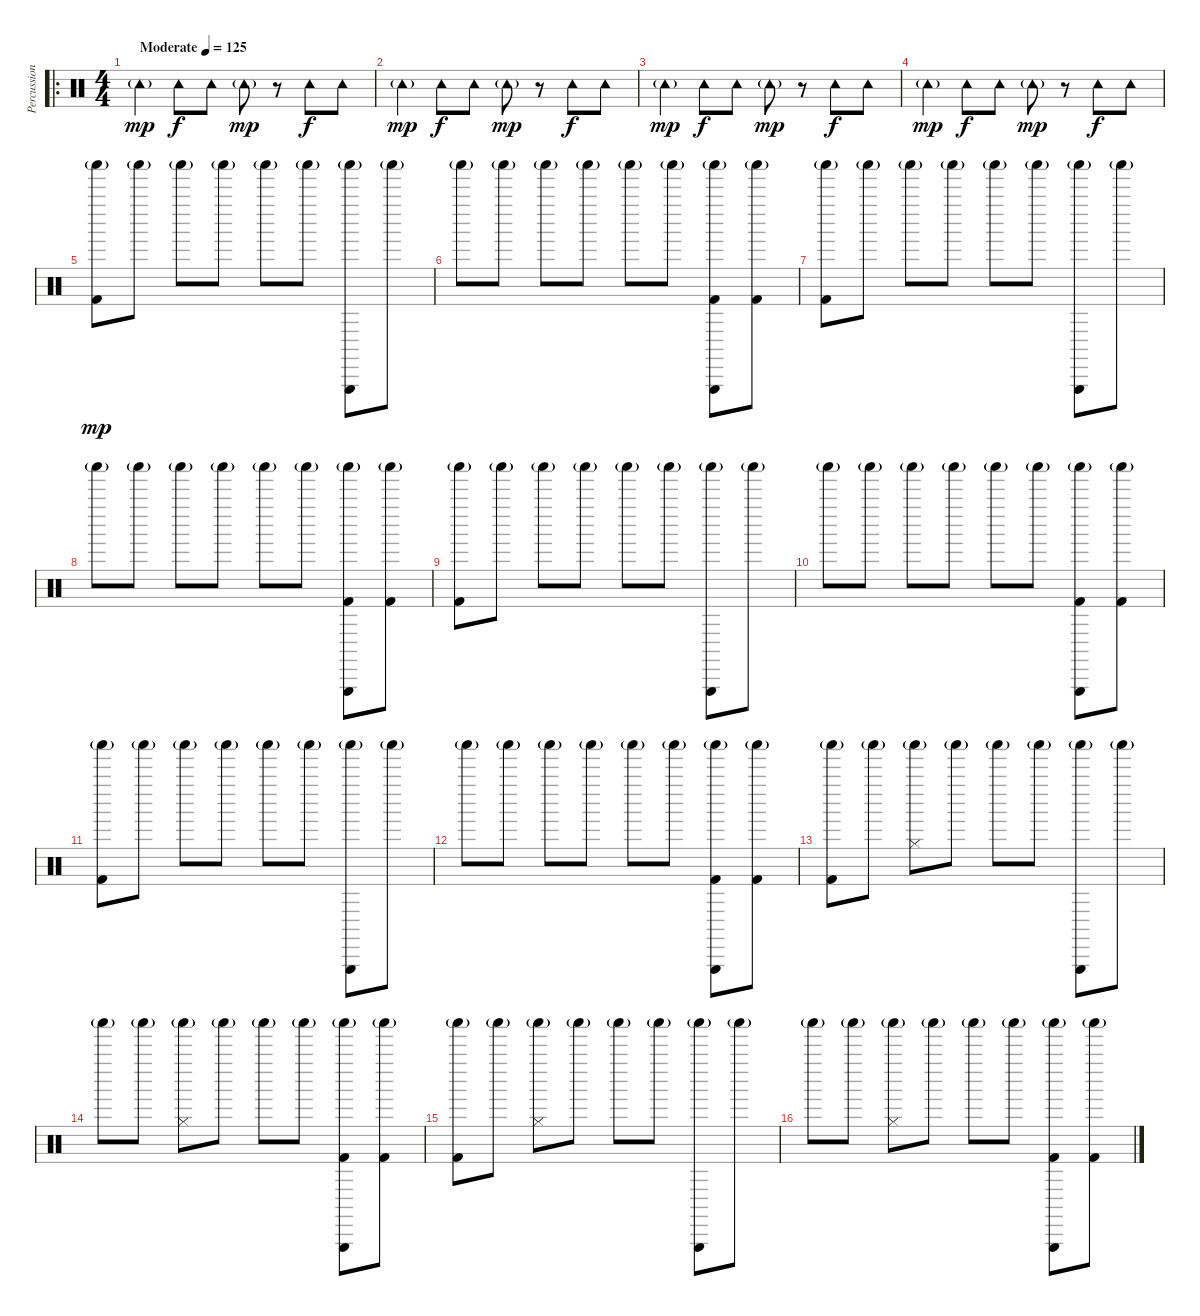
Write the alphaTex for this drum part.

\track ("Percussion" "Percussion") {instrument percussion}
\staff {score}
\articulation defaults
\ro
\ts (4 4)
\tempo (125 "Moderate")
\clef neutral
\ks c "Tambourine (hit)"{g}.4{dy mp} "Tambourine (hit)".8{dy f} "Tambourine (hit)".8 "Tambourine (hit)"{g}.8{dy mp}
r.8 "Tambourine (hit)".8{dy f} "Tambourine (hit)".8 |
"Tambourine (hit)"{g}.4{dy mp} "Tambourine (hit)".8{dy f} "Tambourine (hit)".8 "Tambourine (hit)"{g}.8{dy mp} r.8 "Tambourine (hit)".8{dy f} "Tambourine (hit)".8 |
"Tambourine (hit)"{g}.4{dy mp} "Tambourine (hit)".8{dy f} "Tambourine (hit)".8 "Tambourine (hit)"{g}.8{dy mp} r.8 "Tambourine (hit)".8{dy f} "Tambourine (hit)".8 |
"Tambourine (hit)"{g}.4{dy mp} "Tambourine (hit)".8{dy f} "Tambourine (hit)".8 "Tambourine (hit)"{g}.8{dy mp} r.8 "Tambourine (hit)".8{dy f} "Tambourine (hit)".8 |
("Shaker (hit)"{g} "Kick (hit) 2").8{dy mp} "Shaker (hit)"{g}.8 "Shaker (hit)"{g}.8 "Shaker (hit)"{g}.8 "Shaker (hit)"{g}.8 "Shaker (hit)"{g}.8 ("Triangle (hit)" "Shaker (hit)"{g}).8 "Shaker (hit)"{g}.8 |
"Shaker (hit)"{g}.8 "Shaker (hit)"{g}.8 "Shaker (hit)"{g}.8 "Shaker (hit)"{g}.8 "Shaker (hit)"{g}.8 "Shaker (hit)"{g}.8 ("Triangle (hit)" "Shaker (hit)"{g} "Kick (hit) 2").8 ("Shaker (hit)"{g} "Kick (hit) 2").8 |
("Shaker (hit)"{g} "Kick (hit) 2").8 "Shaker (hit)"{g}.8 "Shaker (hit)"{g}.8 "Shaker (hit)"{g}.8 "Shaker (hit)"{g}.8 "Shaker (hit)"{g}.8 ("Triangle (hit)" "Shaker (hit)"{g}).8 "Shaker (hit)"{g}.8 |
"Shaker (hit)"{g}.8 "Shaker (hit)"{g}.8 "Shaker (hit)"{g}.8 "Shaker (hit)"{g}.8 "Shaker (hit)"{g}.8 "Shaker (hit)"{g}.8 ("Triangle (hit)" "Shaker (hit)"{g} "Kick (hit) 2").8 ("Shaker (hit)"{g} "Kick (hit) 2").8 |
("Shaker (hit)"{g} "Kick (hit) 2").8 "Shaker (hit)"{g}.8 "Shaker (hit)"{g}.8 "Shaker (hit)"{g}.8 "Shaker (hit)"{g}.8 "Shaker (hit)"{g}.8 ("Triangle (hit)" "Shaker (hit)"{g}).8 "Shaker (hit)"{g}.8 |
"Shaker (hit)"{g}.8 "Shaker (hit)"{g}.8 "Shaker (hit)"{g}.8 "Shaker (hit)"{g}.8 "Shaker (hit)"{g}.8 "Shaker (hit)"{g}.8 ("Triangle (hit)" "Shaker (hit)"{g} "Kick (hit) 2").8 ("Shaker (hit)"{g} "Kick (hit) 2").8 |
("Shaker (hit)"{g} "Kick (hit) 2").8 "Shaker (hit)"{g}.8 "Shaker (hit)"{g}.8 "Shaker (hit)"{g}.8 "Shaker (hit)"{g}.8 "Shaker (hit)"{g}.8 ("Triangle (hit)" "Shaker (hit)"{g}).8 "Shaker (hit)"{g}.8 |
"Shaker (hit)"{g}.8 "Shaker (hit)"{g}.8 "Shaker (hit)"{g}.8 "Shaker (hit)"{g}.8 "Shaker (hit)"{g}.8 "Shaker (hit)"{g}.8 ("Triangle (hit)" "Shaker (hit)"{g} "Kick (hit) 2").8 ("Shaker (hit)"{g} "Kick (hit) 2").8 |
("Shaker (hit)"{g} "Kick (hit) 2").8 "Shaker (hit)"{g}.8 ("Hi-Hat (closed)" "Shaker (hit)"{g}).8 "Shaker (hit)"{g}.8 "Shaker (hit)"{g}.8 "Shaker (hit)"{g}.8 ("Triangle (hit)" "Shaker (hit)"{g}).8 "Shaker (hit)"{g}.8 |
"Shaker (hit)"{g}.8 "Shaker (hit)"{g}.8 ("Hi-Hat (closed)" "Shaker (hit)"{g}).8 "Shaker (hit)"{g}.8 "Shaker (hit)"{g}.8 "Shaker (hit)"{g}.8 ("Triangle (hit)" "Shaker (hit)"{g} "Kick (hit) 2").8 ("Shaker (hit)"{g} "Kick (hit) 2").8 |
("Shaker (hit)"{g} "Kick (hit) 2").8 "Shaker (hit)"{g}.8 ("Hi-Hat (closed)" "Shaker (hit)"{g}).8 "Shaker (hit)"{g}.8 "Shaker (hit)"{g}.8 "Shaker (hit)"{g}.8 ("Triangle (hit)" "Shaker (hit)"{g}).8 "Shaker (hit)"{g}.8 |
"Shaker (hit)"{g}.8 "Shaker (hit)"{g}.8 ("Hi-Hat (closed)" "Shaker (hit)"{g}).8 "Shaker (hit)"{g}.8 "Shaker (hit)"{g}.8 "Shaker (hit)"{g}.8 ("Triangle (hit)" "Shaker (hit)"{g} "Kick (hit) 2").8 ("Shaker (hit)"{g} "Kick (hit) 2").8
